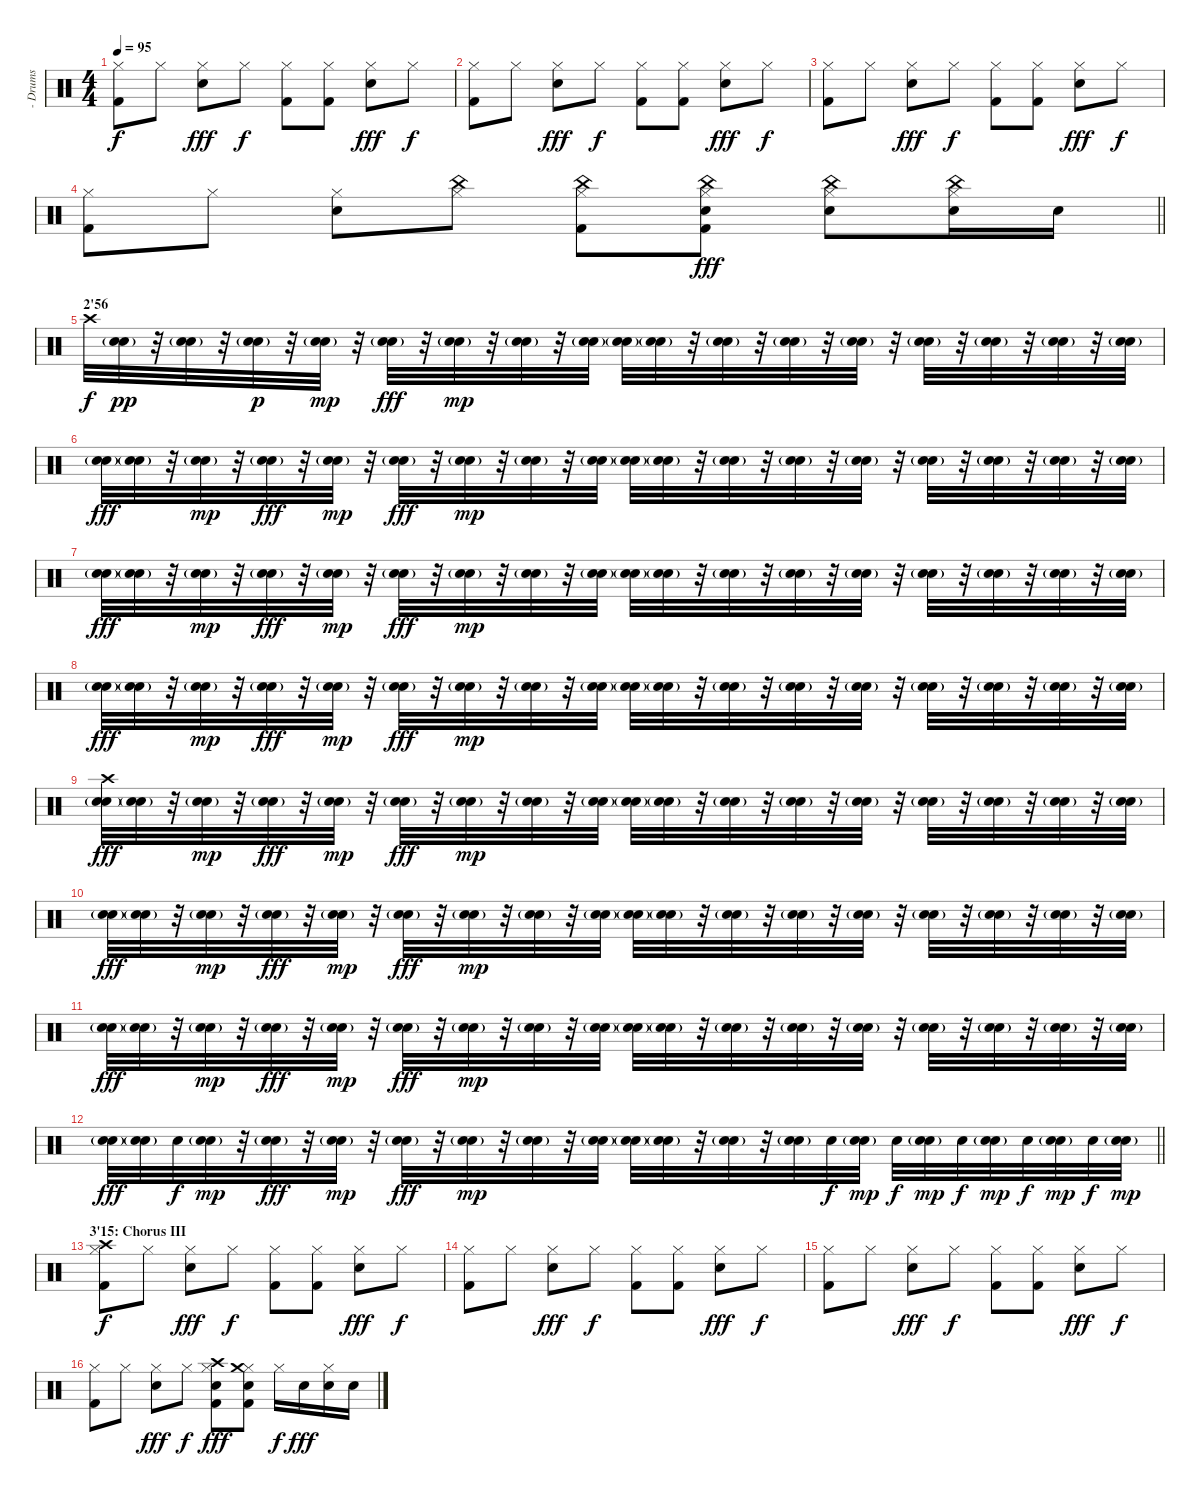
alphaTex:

\track ("- Drums" "- Drums") {instrument percussion}
\staff {score}
\articulation defaults
\ts (4 4)
\tempo 95
\clef neutral
\ks c
("Hi-Hat (closed)" "Kick (hit) 2").8{dy f} "Hi-Hat (closed)".8 ("Hi-Hat (closed)" "Electric Snare (hit)").8{dy fff} "Hi-Hat (closed)".8{dy f} ("Hi-Hat (closed)" "Kick (hit) 2").8 ("Hi-Hat (closed)" "Kick (hit) 2").8 ("Hi-Hat (closed)" "Electric Snare (hit)").8{dy fff} "Hi-Hat (closed)".8{dy f} |
("Hi-Hat (closed)" "Kick (hit) 2").8 "Hi-Hat (closed)".8 ("Hi-Hat (closed)" "Electric Snare (hit)").8{dy fff} "Hi-Hat (closed)".8{dy f} ("Hi-Hat (closed)" "Kick (hit) 2").8 ("Hi-Hat (closed)" "Kick (hit) 2").8 ("Hi-Hat (closed)" "Electric Snare (hit)").8{dy fff} "Hi-Hat (closed)".8{dy f} |
("Hi-Hat (closed)" "Kick (hit) 2").8 "Hi-Hat (closed)".8 ("Hi-Hat (closed)" "Electric Snare (hit)").8{dy fff} "Hi-Hat (closed)".8{dy f} ("Hi-Hat (closed)" "Kick (hit) 2").8 ("Hi-Hat (closed)" "Kick (hit) 2").8 ("Hi-Hat (closed)" "Electric Snare (hit)").8{dy fff} "Hi-Hat (closed)".8{dy f} |
\barLineRight lightlight
("Hi-Hat (closed)" "Kick (hit) 2").8 "Hi-Hat (closed)".8 ("Hi-Hat (closed)" "Electric Snare (hit)").8 ("Hi-Hat (closed)" "China (hit)").8 ("Hi-Hat (closed)" "China (hit)" "Kick (hit) 2").8 ("Hi-Hat (closed)" "China (hit)" "Electric Snare (hit)" "Kick (hit) 2").8{dy fff} ("Hi-Hat (closed)" "China (hit)" "Electric Snare (hit)").8 ("Hi-Hat (closed)" "China (hit)" "Electric Snare (hit)").16 "Electric Snare (hit)".16 |
\section ("" "2'56")
"Crash high (hit)".32{dy f} ("Snare (hit) 2"{g} "Electric Snare (hit)").32{dy pp} r.32 ("Snare (hit) 2"{g} "Electric Snare (hit)").32 r.32 ("Snare (hit) 2"{g} "Electric Snare (hit)").32{dy p} r.32 ("Snare (hit) 2"{g} "Electric Snare (hit)").32{dy mp} r.32 ("Snare (hit) 2"{g} "Electric Snare (hit)").32{dy fff} r.32 ("Snare (hit) 2"{g} "Electric Snare (hit)").32{dy mp} r.32 ("Snare (hit) 2"{g} "Electric Snare (hit)").32 r.32 ("Snare (hit) 2"{g} "Electric Snare (hit)").32 ("Snare (hit) 2"{g} "Electric Snare (hit)").32 ("Snare (hit) 2"{g} "Electric Snare (hit)").32 r.32 ("Snare (hit) 2"{g} "Electric Snare (hit)").32 r.32 ("Snare (hit) 2"{g} "Electric Snare (hit)").32 r.32 ("Snare (hit) 2"{g} "Electric Snare (hit)").32 r.32 ("Snare (hit) 2"{g} "Electric Snare (hit)").32 r.32 ("Snare (hit) 2"{g} "Electric Snare (hit)").32 r.32 ("Snare (hit) 2"{g} "Electric Snare (hit)").32 r.32 ("Snare (hit) 2"{g} "Electric Snare (hit)").32 |
("Snare (hit) 2"{g} "Electric Snare (hit)").32{dy fff} ("Snare (hit) 2"{g} "Electric Snare (hit)").32 r.32 ("Snare (hit) 2"{g} "Electric Snare (hit)").32{dy mp} r.32 ("Snare (hit) 2"{g} "Electric Snare (hit)").32{dy fff} r.32 ("Snare (hit) 2"{g} "Electric Snare (hit)").32{dy mp} r.32 ("Snare (hit) 2"{g} "Electric Snare (hit)").32{dy fff} r.32 ("Snare (hit) 2"{g} "Electric Snare (hit)").32{dy mp} r.32 ("Snare (hit) 2"{g} "Electric Snare (hit)").32 r.32 ("Snare (hit) 2"{g} "Electric Snare (hit)").32 ("Snare (hit) 2"{g} "Electric Snare (hit)").32 ("Snare (hit) 2"{g} "Electric Snare (hit)").32 r.32 ("Snare (hit) 2"{g} "Electric Snare (hit)").32 r.32 ("Snare (hit) 2"{g} "Electric Snare (hit)").32 r.32 ("Snare (hit) 2"{g} "Electric Snare (hit)").32 r.32 ("Snare (hit) 2"{g} "Electric Snare (hit)").32 r.32 ("Snare (hit) 2"{g} "Electric Snare (hit)").32 r.32 ("Snare (hit) 2"{g} "Electric Snare (hit)").32 r.32 ("Snare (hit) 2"{g} "Electric Snare (hit)").32 |
("Snare (hit) 2"{g} "Electric Snare (hit)").32{dy fff} ("Snare (hit) 2"{g} "Electric Snare (hit)").32 r.32 ("Snare (hit) 2"{g} "Electric Snare (hit)").32{dy mp} r.32 ("Snare (hit) 2"{g} "Electric Snare (hit)").32{dy fff} r.32 ("Snare (hit) 2"{g} "Electric Snare (hit)").32{dy mp} r.32 ("Snare (hit) 2"{g} "Electric Snare (hit)").32{dy fff} r.32 ("Snare (hit) 2"{g} "Electric Snare (hit)").32{dy mp} r.32 ("Snare (hit) 2"{g} "Electric Snare (hit)").32 r.32 ("Snare (hit) 2"{g} "Electric Snare (hit)").32 ("Snare (hit) 2"{g} "Electric Snare (hit)").32 ("Snare (hit) 2"{g} "Electric Snare (hit)").32 r.32 ("Snare (hit) 2"{g} "Electric Snare (hit)").32 r.32 ("Snare (hit) 2"{g} "Electric Snare (hit)").32 r.32 ("Snare (hit) 2"{g} "Electric Snare (hit)").32 r.32 ("Snare (hit) 2"{g} "Electric Snare (hit)").32 r.32 ("Snare (hit) 2"{g} "Electric Snare (hit)").32 r.32 ("Snare (hit) 2"{g} "Electric Snare (hit)").32 r.32 ("Snare (hit) 2"{g} "Electric Snare (hit)").32 |
("Snare (hit) 2"{g} "Electric Snare (hit)").32{dy fff} ("Snare (hit) 2"{g} "Electric Snare (hit)").32 r.32 ("Snare (hit) 2"{g} "Electric Snare (hit)").32{dy mp} r.32 ("Snare (hit) 2"{g} "Electric Snare (hit)").32{dy fff} r.32 ("Snare (hit) 2"{g} "Electric Snare (hit)").32{dy mp} r.32 ("Snare (hit) 2"{g} "Electric Snare (hit)").32{dy fff} r.32 ("Snare (hit) 2"{g} "Electric Snare (hit)").32{dy mp} r.32 ("Snare (hit) 2"{g} "Electric Snare (hit)").32 r.32 ("Snare (hit) 2"{g} "Electric Snare (hit)").32 ("Snare (hit) 2"{g} "Electric Snare (hit)").32 ("Snare (hit) 2"{g} "Electric Snare (hit)").32 r.32 ("Snare (hit) 2"{g} "Electric Snare (hit)").32 r.32 ("Snare (hit) 2"{g} "Electric Snare (hit)").32 r.32 ("Snare (hit) 2"{g} "Electric Snare (hit)").32 r.32 ("Snare (hit) 2"{g} "Electric Snare (hit)").32 r.32 ("Snare (hit) 2"{g} "Electric Snare (hit)").32 r.32 ("Snare (hit) 2"{g} "Electric Snare (hit)").32 r.32 ("Snare (hit) 2"{g} "Electric Snare (hit)").32 |
("Crash high (hit)" "Snare (hit) 2"{g} "Electric Snare (hit)").32{dy fff} ("Snare (hit) 2"{g} "Electric Snare (hit)").32 r.32 ("Snare (hit) 2"{g} "Electric Snare (hit)").32{dy mp} r.32 ("Snare (hit) 2"{g} "Electric Snare (hit)").32{dy fff} r.32 ("Snare (hit) 2"{g} "Electric Snare (hit)").32{dy mp} r.32 ("Snare (hit) 2"{g} "Electric Snare (hit)").32{dy fff} r.32 ("Snare (hit) 2"{g} "Electric Snare (hit)").32{dy mp} r.32 ("Snare (hit) 2"{g} "Electric Snare (hit)").32 r.32 ("Snare (hit) 2"{g} "Electric Snare (hit)").32 ("Snare (hit) 2"{g} "Electric Snare (hit)").32 ("Snare (hit) 2"{g} "Electric Snare (hit)").32 r.32 ("Snare (hit) 2"{g} "Electric Snare (hit)").32 r.32 ("Snare (hit) 2"{g} "Electric Snare (hit)").32 r.32 ("Snare (hit) 2"{g} "Electric Snare (hit)").32 r.32 ("Snare (hit) 2"{g} "Electric Snare (hit)").32 r.32 ("Snare (hit) 2"{g} "Electric Snare (hit)").32 r.32 ("Snare (hit) 2"{g} "Electric Snare (hit)").32 r.32 ("Snare (hit) 2"{g} "Electric Snare (hit)").32 |
("Snare (hit) 2"{g} "Electric Snare (hit)").32{dy fff} ("Snare (hit) 2"{g} "Electric Snare (hit)").32 r.32 ("Snare (hit) 2"{g} "Electric Snare (hit)").32{dy mp} r.32 ("Snare (hit) 2"{g} "Electric Snare (hit)").32{dy fff} r.32 ("Snare (hit) 2"{g} "Electric Snare (hit)").32{dy mp} r.32 ("Snare (hit) 2"{g} "Electric Snare (hit)").32{dy fff} r.32 ("Snare (hit) 2"{g} "Electric Snare (hit)").32{dy mp} r.32 ("Snare (hit) 2"{g} "Electric Snare (hit)").32 r.32 ("Snare (hit) 2"{g} "Electric Snare (hit)").32 ("Snare (hit) 2"{g} "Electric Snare (hit)").32 ("Snare (hit) 2"{g} "Electric Snare (hit)").32 r.32 ("Snare (hit) 2"{g} "Electric Snare (hit)").32 r.32 ("Snare (hit) 2"{g} "Electric Snare (hit)").32 r.32 ("Snare (hit) 2"{g} "Electric Snare (hit)").32 r.32 ("Snare (hit) 2"{g} "Electric Snare (hit)").32 r.32 ("Snare (hit) 2"{g} "Electric Snare (hit)").32 r.32 ("Snare (hit) 2"{g} "Electric Snare (hit)").32 r.32 ("Snare (hit) 2"{g} "Electric Snare (hit)").32 |
("Snare (hit) 2"{g} "Electric Snare (hit)").32{dy fff} ("Snare (hit) 2"{g} "Electric Snare (hit)").32 r.32 ("Snare (hit) 2"{g} "Electric Snare (hit)").32{dy mp} r.32 ("Snare (hit) 2"{g} "Electric Snare (hit)").32{dy fff} r.32 ("Snare (hit) 2"{g} "Electric Snare (hit)").32{dy mp} r.32 ("Snare (hit) 2"{g} "Electric Snare (hit)").32{dy fff} r.32 ("Snare (hit) 2"{g} "Electric Snare (hit)").32{dy mp} r.32 ("Snare (hit) 2"{g} "Electric Snare (hit)").32 r.32 ("Snare (hit) 2"{g} "Electric Snare (hit)").32 ("Snare (hit) 2"{g} "Electric Snare (hit)").32 ("Snare (hit) 2"{g} "Electric Snare (hit)").32 r.32 ("Snare (hit) 2"{g} "Electric Snare (hit)").32 r.32 ("Snare (hit) 2"{g} "Electric Snare (hit)").32 r.32 ("Snare (hit) 2"{g} "Electric Snare (hit)").32 r.32 ("Snare (hit) 2"{g} "Electric Snare (hit)").32 r.32 ("Snare (hit) 2"{g} "Electric Snare (hit)").32 r.32 ("Snare (hit) 2"{g} "Electric Snare (hit)").32 r.32 ("Snare (hit) 2"{g} "Electric Snare (hit)").32 |
\barLineRight lightlight
("Snare (hit) 2"{g} "Electric Snare (hit)").32{dy fff} ("Snare (hit) 2"{g} "Electric Snare (hit)").32 "Electric Snare (hit)".32{dy f} ("Snare (hit) 2"{g} "Electric Snare (hit)").32{dy mp} r.32 ("Snare (hit) 2"{g} "Electric Snare (hit)").32{dy fff} r.32 ("Snare (hit) 2"{g} "Electric Snare (hit)").32{dy mp} r.32 ("Snare (hit) 2"{g} "Electric Snare (hit)").32{dy fff} r.32 ("Snare (hit) 2"{g} "Electric Snare (hit)").32{dy mp} r.32 ("Snare (hit) 2"{g} "Electric Snare (hit)").32 r.32 ("Snare (hit) 2"{g} "Electric Snare (hit)").32 ("Snare (hit) 2"{g} "Electric Snare (hit)").32 ("Snare (hit) 2"{g} "Electric Snare (hit)").32 r.32 ("Snare (hit) 2"{g} "Electric Snare (hit)").32 r.32 ("Snare (hit) 2"{g} "Electric Snare (hit)").32 "Electric Snare (hit)".32{dy f} ("Snare (hit) 2"{g} "Electric Snare (hit)").32{dy mp} "Electric Snare (hit)".32{dy f} ("Snare (hit) 2"{g} "Electric Snare (hit)").32{dy mp} "Electric Snare (hit)".32{dy f} ("Snare (hit) 2"{g} "Electric Snare (hit)").32{dy mp} "Electric Snare (hit)".32{dy f} ("Snare (hit) 2"{g} "Electric Snare (hit)").32{dy mp} "Electric Snare (hit)".32{dy f} ("Snare (hit) 2"{g} "Electric Snare (hit)").32{dy mp} |
\section ("" "3'15: Chorus III")
("Hi-Hat (closed)" "Crash high (hit)" "Kick (hit) 2").8{dy f} "Hi-Hat (closed)".8 ("Hi-Hat (closed)" "Electric Snare (hit)").8{dy fff} "Hi-Hat (closed)".8{dy f} ("Hi-Hat (closed)" "Kick (hit) 2").8 ("Hi-Hat (closed)" "Kick (hit) 2").8 ("Hi-Hat (closed)" "Electric Snare (hit)").8{dy fff} "Hi-Hat (closed)".8{dy f} |
("Hi-Hat (closed)" "Kick (hit) 2").8 "Hi-Hat (closed)".8 ("Hi-Hat (closed)" "Electric Snare (hit)").8{dy fff} "Hi-Hat (closed)".8{dy f} ("Hi-Hat (closed)" "Kick (hit) 2").8 ("Hi-Hat (closed)" "Kick (hit) 2").8 ("Hi-Hat (closed)" "Electric Snare (hit)").8{dy fff} "Hi-Hat (closed)".8{dy f} |
("Hi-Hat (closed)" "Kick (hit) 2").8 "Hi-Hat (closed)".8 ("Hi-Hat (closed)" "Electric Snare (hit)").8{dy fff} "Hi-Hat (closed)".8{dy f} ("Hi-Hat (closed)" "Kick (hit) 2").8 ("Hi-Hat (closed)" "Kick (hit) 2").8 ("Hi-Hat (closed)" "Electric Snare (hit)").8{dy fff} "Hi-Hat (closed)".8{dy f} |
("Hi-Hat (closed)" "Kick (hit) 2").8 "Hi-Hat (closed)".8 ("Hi-Hat (closed)" "Electric Snare (hit)").8{dy fff} "Hi-Hat (closed)".8{dy f} ("Hi-Hat (closed)" "Crash high (hit)" "Electric Snare (hit)" "Kick (hit) 2").8{dy fff} ("Hi-Hat (closed)" "Crash medium (hit)" "Electric Snare (hit)" "Kick (hit) 2").8 "Hi-Hat (closed)".16{dy f} "Electric Snare (hit)".16{dy fff} ("Hi-Hat (closed)" "Electric Snare (hit)").16 "Electric Snare (hit)".16
